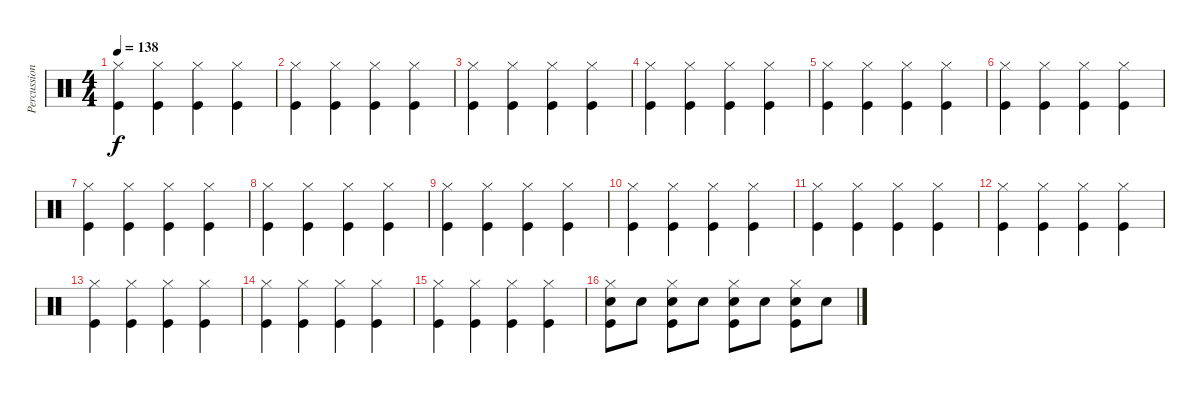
\track ("Percussions" "Percussion") {instrument percussion}
\staff {score}
\articulation defaults
\ts (4 4)
\tempo 138
\clef neutral
\ks c
("Hi-Hat (closed)" "Kick (hit)").4{dy f} ("Hi-Hat (closed)" "Kick (hit)").4 ("Hi-Hat (closed)" "Kick (hit)").4 ("Hi-Hat (closed)" "Kick (hit)").4 |
("Hi-Hat (closed)" "Kick (hit)").4 ("Hi-Hat (closed)" "Kick (hit)").4 ("Hi-Hat (closed)" "Kick (hit)").4 ("Hi-Hat (closed)" "Kick (hit)").4 |
("Hi-Hat (closed)" "Kick (hit)").4 ("Hi-Hat (closed)" "Kick (hit)").4 ("Hi-Hat (closed)" "Kick (hit)").4 ("Hi-Hat (closed)" "Kick (hit)").4 |
("Hi-Hat (closed)" "Kick (hit)").4 ("Hi-Hat (closed)" "Kick (hit)").4 ("Hi-Hat (closed)" "Kick (hit)").4 ("Hi-Hat (closed)" "Kick (hit)").4 |
("Hi-Hat (closed)" "Kick (hit)").4 ("Hi-Hat (closed)" "Kick (hit)").4 ("Hi-Hat (closed)" "Kick (hit)").4 ("Hi-Hat (closed)" "Kick (hit)").4 |
("Hi-Hat (closed)" "Kick (hit)").4 ("Hi-Hat (closed)" "Kick (hit)").4 ("Hi-Hat (closed)" "Kick (hit)").4 ("Hi-Hat (closed)" "Kick (hit)").4 |
("Hi-Hat (closed)" "Kick (hit)").4 ("Hi-Hat (closed)" "Kick (hit)").4 ("Hi-Hat (closed)" "Kick (hit)").4 ("Hi-Hat (closed)" "Kick (hit)").4 |
("Hi-Hat (closed)" "Kick (hit)").4 ("Hi-Hat (closed)" "Kick (hit)").4 ("Hi-Hat (closed)" "Kick (hit)").4 ("Hi-Hat (closed)" "Kick (hit)").4 |
("Hi-Hat (closed)" "Kick (hit)").4 ("Hi-Hat (closed)" "Kick (hit)").4 ("Hi-Hat (closed)" "Kick (hit)").4 ("Hi-Hat (closed)" "Kick (hit)").4 |
("Hi-Hat (closed)" "Kick (hit)").4 ("Hi-Hat (closed)" "Kick (hit)").4 ("Hi-Hat (closed)" "Kick (hit)").4 ("Hi-Hat (closed)" "Kick (hit)").4 |
("Hi-Hat (closed)" "Kick (hit)").4 ("Hi-Hat (closed)" "Kick (hit)").4 ("Hi-Hat (closed)" "Kick (hit)").4 ("Hi-Hat (closed)" "Kick (hit)").4 |
("Hi-Hat (closed)" "Kick (hit)").4 ("Hi-Hat (closed)" "Kick (hit)").4 ("Hi-Hat (closed)" "Kick (hit)").4 ("Hi-Hat (closed)" "Kick (hit)").4 |
("Hi-Hat (closed)" "Kick (hit)").4 ("Hi-Hat (closed)" "Kick (hit)").4 ("Hi-Hat (closed)" "Kick (hit)").4 ("Hi-Hat (closed)" "Kick (hit)").4 |
("Hi-Hat (closed)" "Kick (hit)").4 ("Hi-Hat (closed)" "Kick (hit)").4 ("Hi-Hat (closed)" "Kick (hit)").4 ("Hi-Hat (closed)" "Kick (hit)").4 |
("Hi-Hat (closed)" "Kick (hit)").4 ("Hi-Hat (closed)" "Kick (hit)").4 ("Hi-Hat (closed)" "Kick (hit)").4 ("Hi-Hat (closed)" "Kick (hit)").4 |
("Hi-Hat (closed)" "Kick (hit)" "Electric Snare (hit)").8 "Electric Snare (hit)".8 ("Hi-Hat (closed)" "Kick (hit)" "Electric Snare (hit)").8 "Electric Snare (hit)".8 ("Hi-Hat (closed)" "Kick (hit)" "Electric Snare (hit)").8 "Electric Snare (hit)".8 ("Hi-Hat (closed)" "Kick (hit)" "Electric Snare (hit)").8 "Electric Snare (hit)".8
